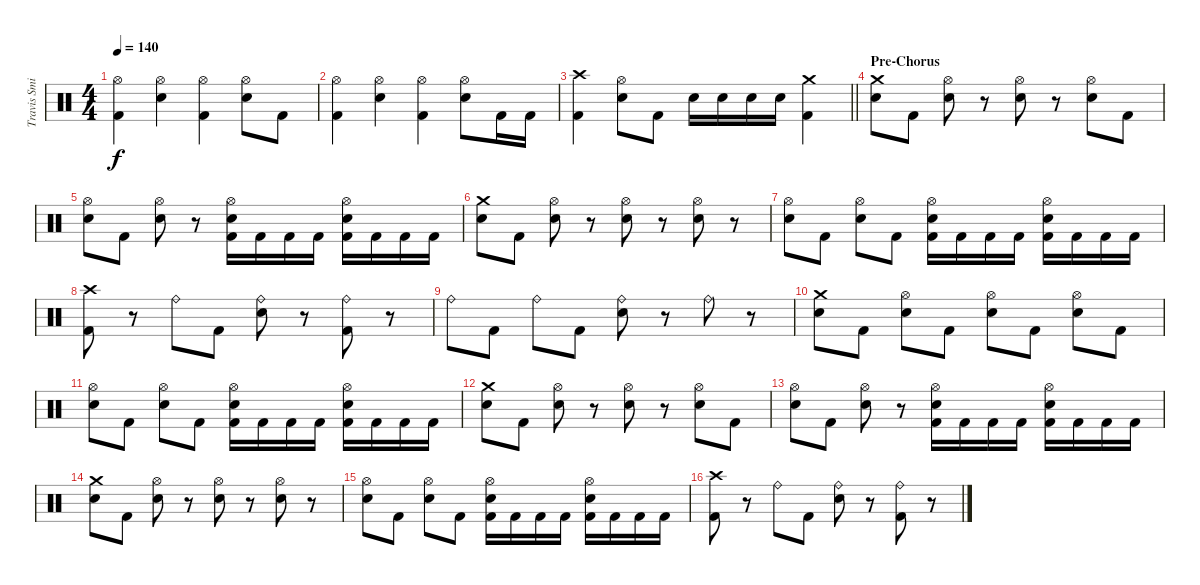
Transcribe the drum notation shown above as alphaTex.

\track ("Travis Smith" "Travis Smi") {instrument percussion}
\staff {score}
\articulation defaults
\ts (4 4)
\tempo 140
\clef neutral
\ks c
("Hi-Hat (open)" "Kick (hit) 2").4{dy f} ("Hi-Hat (open)" "Electric Snare (hit)").4 ("Hi-Hat (open)" "Kick (hit) 2").4 ("Hi-Hat (open)" "Electric Snare (hit)").8 "Kick (hit) 2".8 |
("Hi-Hat (open)" "Kick (hit) 2").4 ("Hi-Hat (open)" "Electric Snare (hit)").4 ("Hi-Hat (open)" "Kick (hit) 2").4 ("Hi-Hat (open)" "Electric Snare (hit)").8 "Kick (hit) 2".16 "Kick (hit) 2".16 |
\barLineRight lightlight
("Crash high (hit)" "Kick (hit) 2").4 ("Hi-Hat (open)" "Electric Snare (hit)").8 "Kick (hit) 2".8 "Electric Snare (hit)".16 "Electric Snare (hit)".16 "Electric Snare (hit)".16 "Electric Snare (hit)".16 ("Crash medium (hit)" "Kick (hit) 2").4 |
\section ("" "Pre-Chorus")
("Crash medium (hit)" "Electric Snare (hit)").8 "Kick (hit) 2".8 ("Hi-Hat (open)" "Electric Snare (hit)").8 r.8 ("Hi-Hat (open)" "Electric Snare (hit)").8 r.8 ("Hi-Hat (open)" "Electric Snare (hit)").8 "Kick (hit) 2".8 |
("Hi-Hat (open)" "Electric Snare (hit)").8 "Kick (hit) 2".8 ("Hi-Hat (open)" "Electric Snare (hit)").8 r.8 ("Kick (hit) 2" "Hi-Hat (open)" "Electric Snare (hit)").16 "Kick (hit) 2".16 "Kick (hit) 2".16 "Kick (hit) 2".16 ("Kick (hit) 2" "Hi-Hat (open)" "Electric Snare (hit)").16 "Kick (hit) 2".16 "Kick (hit) 2".16 "Kick (hit) 2".16 |
("Crash medium (hit)" "Electric Snare (hit)").8 "Kick (hit) 2".8 ("Hi-Hat (open)" "Electric Snare (hit)").8 r.8 ("Hi-Hat (open)" "Electric Snare (hit)").8 r.8 ("Hi-Hat (open)" "Electric Snare (hit)").8 r.8 |
("Hi-Hat (open)" "Electric Snare (hit)").8 "Kick (hit) 2".8 ("Hi-Hat (open)" "Electric Snare (hit)").8 "Kick (hit) 2".8 ("Hi-Hat (open)" "Electric Snare (hit)" "Kick (hit) 2").16 "Kick (hit) 2".16 "Kick (hit) 2".16 "Kick (hit) 2".16 ("Hi-Hat (open)" "Electric Snare (hit)" "Kick (hit) 2").16 "Kick (hit) 2".16 "Kick (hit) 2".16 "Kick (hit) 2".16 |
("Crash high (hit)" "Kick (hit) 2").8 r.8 "Ride (bell)".8 "Kick (hit) 2".8 ("Ride (bell)" "Electric Snare (hit)").8 r.8 ("Ride (bell)" "Kick (hit) 2").8 r.8 |
"Ride (bell)".8 "Kick (hit) 2".8 "Ride (bell)".8 "Kick (hit) 2".8 ("Ride (bell)" "Electric Snare (hit)").8 r.8 "Ride (bell)".8 r.8 |
("Crash medium (hit)" "Electric Snare (hit)").8 "Kick (hit) 2".8 ("Hi-Hat (open)" "Electric Snare (hit)").8 "Kick (hit) 2".8 ("Hi-Hat (open)" "Electric Snare (hit)").8 "Kick (hit) 2".8 ("Hi-Hat (open)" "Electric Snare (hit)").8 "Kick (hit) 2".8 |
("Hi-Hat (open)" "Electric Snare (hit)").8 "Kick (hit) 2".8 ("Hi-Hat (open)" "Electric Snare (hit)").8 "Kick (hit) 2".8 ("Hi-Hat (open)" "Electric Snare (hit)" "Kick (hit) 2").16 "Kick (hit) 2".16 "Kick (hit) 2".16 "Kick (hit) 2".16 ("Hi-Hat (open)" "Electric Snare (hit)" "Kick (hit) 2").16 "Kick (hit) 2".16 "Kick (hit) 2".16 "Kick (hit) 2".16 |
("Crash medium (hit)" "Electric Snare (hit)").8 "Kick (hit) 2".8 ("Hi-Hat (open)" "Electric Snare (hit)").8 r.8 ("Hi-Hat (open)" "Electric Snare (hit)").8 r.8 ("Hi-Hat (open)" "Electric Snare (hit)").8 "Kick (hit) 2".8 |
("Hi-Hat (open)" "Electric Snare (hit)").8 "Kick (hit) 2".8 ("Hi-Hat (open)" "Electric Snare (hit)").8 r.8 ("Kick (hit) 2" "Hi-Hat (open)" "Electric Snare (hit)").16 "Kick (hit) 2".16 "Kick (hit) 2".16 "Kick (hit) 2".16 ("Kick (hit) 2" "Hi-Hat (open)" "Electric Snare (hit)").16 "Kick (hit) 2".16 "Kick (hit) 2".16 "Kick (hit) 2".16 |
("Crash medium (hit)" "Electric Snare (hit)").8 "Kick (hit) 2".8 ("Hi-Hat (open)" "Electric Snare (hit)").8 r.8 ("Hi-Hat (open)" "Electric Snare (hit)").8 r.8 ("Hi-Hat (open)" "Electric Snare (hit)").8 r.8 |
("Hi-Hat (open)" "Electric Snare (hit)").8 "Kick (hit) 2".8 ("Hi-Hat (open)" "Electric Snare (hit)").8 "Kick (hit) 2".8 ("Hi-Hat (open)" "Electric Snare (hit)" "Kick (hit) 2").16 "Kick (hit) 2".16 "Kick (hit) 2".16 "Kick (hit) 2".16 ("Hi-Hat (open)" "Electric Snare (hit)" "Kick (hit) 2").16 "Kick (hit) 2".16 "Kick (hit) 2".16 "Kick (hit) 2".16 |
("Crash high (hit)" "Kick (hit) 2").8 r.8 "Ride (bell)".8 "Kick (hit) 2".8 ("Ride (bell)" "Electric Snare (hit)").8 r.8 ("Ride (bell)" "Kick (hit) 2").8 r.8
